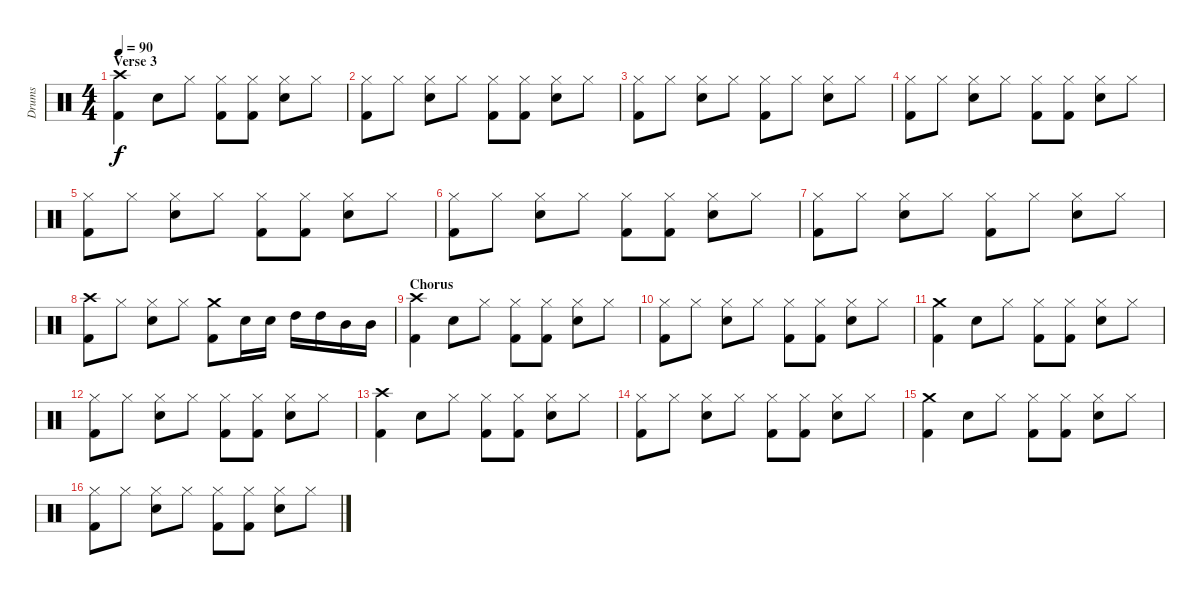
\track ("Drums" "Drums") {instrument percussion}
\staff {score}
\articulation defaults
\ts (4 4)
\section ("" "Verse 3")
\tempo 90
\clef neutral
\ks c
("Kick (hit) 2" "Crash high (hit)").4{dy f} "Snare (hit) 2".8 "Hi-Hat (closed)".8 ("Kick (hit) 2" "Hi-Hat (closed)").8 ("Kick (hit) 2" "Hi-Hat (closed)").8 ("Snare (hit) 2" "Hi-Hat (closed)").8 "Hi-Hat (closed)".8 |
("Kick (hit) 2" "Hi-Hat (closed)").8 "Hi-Hat (closed)".8 ("Snare (hit) 2" "Hi-Hat (closed)").8 "Hi-Hat (closed)".8 ("Kick (hit) 2" "Hi-Hat (closed)").8 ("Kick (hit) 2" "Hi-Hat (closed)").8 ("Snare (hit) 2" "Hi-Hat (closed)").8 "Hi-Hat (closed)".8 |
("Kick (hit) 2" "Hi-Hat (closed)").8 "Hi-Hat (closed)".8 ("Snare (hit) 2" "Hi-Hat (closed)").8 "Hi-Hat (closed)".8 ("Kick (hit) 2" "Hi-Hat (closed)").8 "Hi-Hat (closed)".8 ("Snare (hit) 2" "Hi-Hat (closed)").8 "Hi-Hat (closed)".8 |
("Kick (hit) 2" "Hi-Hat (closed)").8 "Hi-Hat (closed)".8 ("Snare (hit) 2" "Hi-Hat (closed)").8 "Hi-Hat (closed)".8 ("Kick (hit) 2" "Hi-Hat (closed)").8 ("Kick (hit) 2" "Hi-Hat (closed)").8 ("Snare (hit) 2" "Hi-Hat (closed)").8 "Hi-Hat (closed)".8 |
("Kick (hit) 2" "Hi-Hat (closed)").8 "Hi-Hat (closed)".8 ("Snare (hit) 2" "Hi-Hat (closed)").8 "Hi-Hat (closed)".8 ("Kick (hit) 2" "Hi-Hat (closed)").8 ("Kick (hit) 2" "Hi-Hat (closed)").8 ("Snare (hit) 2" "Hi-Hat (closed)").8 "Hi-Hat (closed)".8 |
("Kick (hit) 2" "Hi-Hat (closed)").8 "Hi-Hat (closed)".8 ("Snare (hit) 2" "Hi-Hat (closed)").8 "Hi-Hat (closed)".8 ("Kick (hit) 2" "Hi-Hat (closed)").8 ("Kick (hit) 2" "Hi-Hat (closed)").8 ("Snare (hit) 2" "Hi-Hat (closed)").8 "Hi-Hat (closed)".8 |
("Kick (hit) 2" "Hi-Hat (closed)").8 "Hi-Hat (closed)".8 ("Snare (hit) 2" "Hi-Hat (closed)").8 "Hi-Hat (closed)".8 ("Kick (hit) 2" "Hi-Hat (closed)").8 "Hi-Hat (closed)".8 ("Snare (hit) 2" "Hi-Hat (closed)").8 "Hi-Hat (closed)".8 |
("Kick (hit) 2" "Crash high (hit)").8 "Hi-Hat (closed)".8 ("Snare (hit) 2" "Hi-Hat (closed)").8 "Hi-Hat (closed)".8 ("Kick (hit) 2" "Crash medium (hit)").8 "Snare (hit) 2".16 "Snare (hit) 2".16 "High Tom (hit)".16 "High Tom (hit)".16 "Mid Tom (hit)".16 "Mid Tom (hit)".16 |
\section ("" "Chorus")
("Kick (hit) 2" "Crash high (hit)").4 "Snare (hit) 2".8 "Hi-Hat (closed)".8 ("Kick (hit) 2" "Hi-Hat (closed)").8 ("Kick (hit) 2" "Hi-Hat (closed)").8 ("Snare (hit) 2" "Hi-Hat (closed)").8 "Hi-Hat (closed)".8 |
("Kick (hit) 2" "Hi-Hat (closed)").8 "Hi-Hat (closed)".8 ("Snare (hit) 2" "Hi-Hat (closed)").8 "Hi-Hat (closed)".8 ("Kick (hit) 2" "Hi-Hat (closed)").8 ("Kick (hit) 2" "Hi-Hat (closed)").8 ("Snare (hit) 2" "Hi-Hat (closed)").8 "Hi-Hat (closed)".8 |
("Kick (hit) 2" "Crash medium (hit)").4 "Snare (hit) 2".8 "Hi-Hat (closed)".8 ("Kick (hit) 2" "Hi-Hat (closed)").8 ("Kick (hit) 2" "Hi-Hat (closed)").8 ("Snare (hit) 2" "Hi-Hat (closed)").8 "Hi-Hat (closed)".8 |
("Kick (hit) 2" "Hi-Hat (closed)").8 "Hi-Hat (closed)".8 ("Snare (hit) 2" "Hi-Hat (closed)").8 "Hi-Hat (closed)".8 ("Kick (hit) 2" "Hi-Hat (closed)").8 ("Kick (hit) 2" "Hi-Hat (closed)").8 ("Snare (hit) 2" "Hi-Hat (closed)").8 "Hi-Hat (closed)".8 |
("Kick (hit) 2" "Crash high (hit)").4 "Snare (hit) 2".8 "Hi-Hat (closed)".8 ("Kick (hit) 2" "Hi-Hat (closed)").8 ("Kick (hit) 2" "Hi-Hat (closed)").8 ("Snare (hit) 2" "Hi-Hat (closed)").8 "Hi-Hat (closed)".8 |
("Kick (hit) 2" "Hi-Hat (closed)").8 "Hi-Hat (closed)".8 ("Snare (hit) 2" "Hi-Hat (closed)").8 "Hi-Hat (closed)".8 ("Kick (hit) 2" "Hi-Hat (closed)").8 ("Kick (hit) 2" "Hi-Hat (closed)").8 ("Snare (hit) 2" "Hi-Hat (closed)").8 "Hi-Hat (closed)".8 |
("Kick (hit) 2" "Crash medium (hit)").4 "Snare (hit) 2".8 "Hi-Hat (closed)".8 ("Kick (hit) 2" "Hi-Hat (closed)").8 ("Kick (hit) 2" "Hi-Hat (closed)").8 ("Snare (hit) 2" "Hi-Hat (closed)").8 "Hi-Hat (closed)".8 |
("Kick (hit) 2" "Hi-Hat (closed)").8 "Hi-Hat (closed)".8 ("Snare (hit) 2" "Hi-Hat (closed)").8 "Hi-Hat (closed)".8 ("Kick (hit) 2" "Hi-Hat (closed)").8 ("Kick (hit) 2" "Hi-Hat (closed)").8 ("Snare (hit) 2" "Hi-Hat (closed)").8 "Hi-Hat (closed)".8
